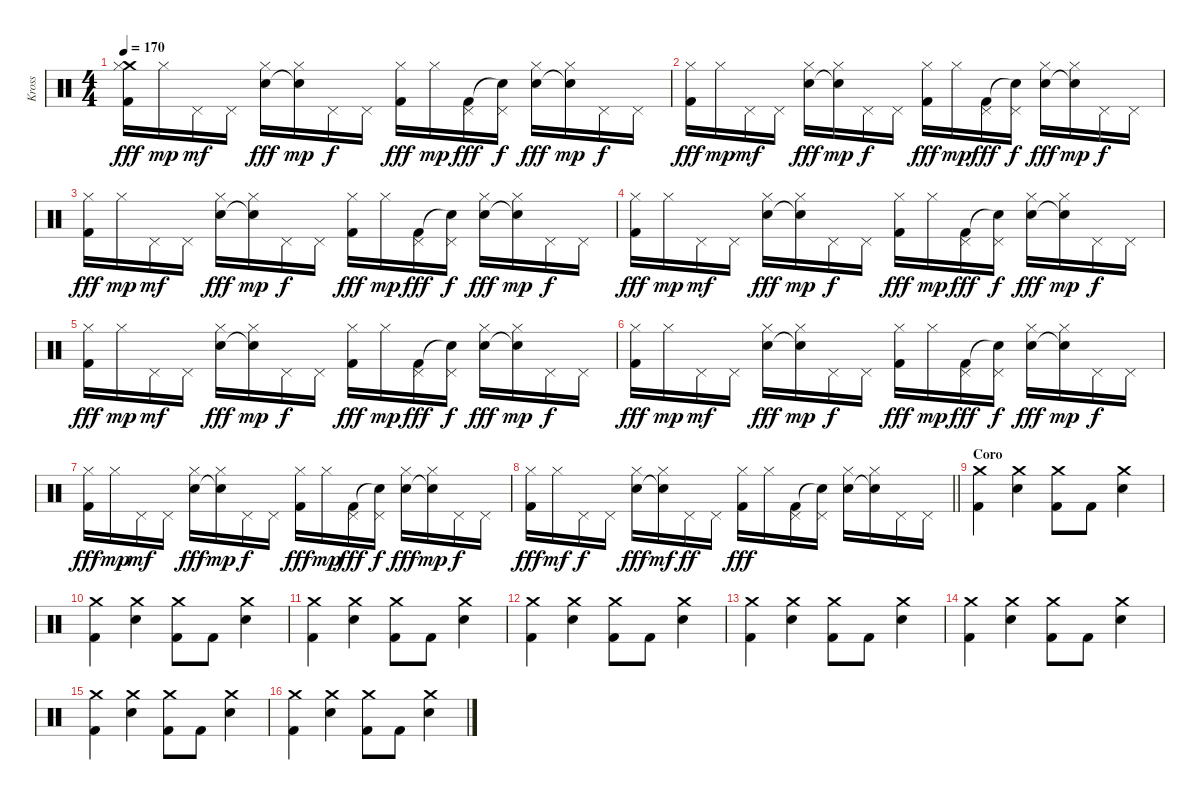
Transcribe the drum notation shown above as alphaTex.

\track ("Kross" "Kross") {instrument percussion}
\staff {score}
\articulation defaults
\ts (4 4)
\tempo 170
\clef neutral
\ks c
("Crash medium (hit)" "Hi-Hat (closed)" "Kick (hit) 2").16{dy fff} "Hi-Hat (closed)".16{dy mp} "Pedal Hi-Hat (hit)".16{dy mf} "Pedal Hi-Hat (hit)".16 ("Hi-Hat (closed)" "Snare (hit) 2").16{dy fff} ("Hi-Hat (closed)" "Snare (hit)"{t}).16{dy mp} "Pedal Hi-Hat (hit)".16{dy f} "Pedal Hi-Hat (hit)".16 ("Hi-Hat (closed)" "Kick (hit) 2").16{dy fff} "Hi-Hat (closed)".16{dy mp} ("Pedal Hi-Hat (hit)" "Kick (hit) 2").16{dy fff} ("Pedal Hi-Hat (hit)" "Snare (hit)"{t}).16{dy f} ("Hi-Hat (closed)" "Snare (hit) 2").16{dy fff} ("Hi-Hat (closed)" "Snare (hit)"{t}).16{dy mp} "Pedal Hi-Hat (hit)".16{dy f} "Pedal Hi-Hat (hit)".16 |
("Hi-Hat (closed)" "Kick (hit) 2").16{dy fff} "Hi-Hat (closed)".16{dy mp} "Pedal Hi-Hat (hit)".16{dy mf} "Pedal Hi-Hat (hit)".16 ("Hi-Hat (closed)" "Snare (hit) 2").16{dy fff} ("Hi-Hat (closed)" "Snare (hit)"{t}).16{dy mp} "Pedal Hi-Hat (hit)".16{dy f} "Pedal Hi-Hat (hit)".16 ("Hi-Hat (closed)" "Kick (hit) 2").16{dy fff} "Hi-Hat (closed)".16{dy mp} ("Pedal Hi-Hat (hit)" "Kick (hit) 2").16{dy fff} ("Pedal Hi-Hat (hit)" "Snare (hit)"{t}).16{dy f} ("Hi-Hat (closed)" "Snare (hit) 2").16{dy fff} ("Hi-Hat (closed)" "Snare (hit)"{t}).16{dy mp} "Pedal Hi-Hat (hit)".16{dy f} "Pedal Hi-Hat (hit)".16 |
("Hi-Hat (closed)" "Kick (hit) 2").16{dy fff} "Hi-Hat (closed)".16{dy mp} "Pedal Hi-Hat (hit)".16{dy mf} "Pedal Hi-Hat (hit)".16 ("Hi-Hat (closed)" "Snare (hit) 2").16{dy fff} ("Hi-Hat (closed)" "Snare (hit)"{t}).16{dy mp} "Pedal Hi-Hat (hit)".16{dy f} "Pedal Hi-Hat (hit)".16 ("Hi-Hat (closed)" "Kick (hit) 2").16{dy fff} "Hi-Hat (closed)".16{dy mp} ("Pedal Hi-Hat (hit)" "Kick (hit) 2").16{dy fff} ("Pedal Hi-Hat (hit)" "Snare (hit)"{t}).16{dy f} ("Hi-Hat (closed)" "Snare (hit) 2").16{dy fff} ("Hi-Hat (closed)" "Snare (hit)"{t}).16{dy mp} "Pedal Hi-Hat (hit)".16{dy f} "Pedal Hi-Hat (hit)".16 |
("Hi-Hat (closed)" "Kick (hit) 2").16{dy fff} "Hi-Hat (closed)".16{dy mp} "Pedal Hi-Hat (hit)".16{dy mf} "Pedal Hi-Hat (hit)".16 ("Hi-Hat (closed)" "Snare (hit) 2").16{dy fff} ("Hi-Hat (closed)" "Snare (hit)"{t}).16{dy mp} "Pedal Hi-Hat (hit)".16{dy f} "Pedal Hi-Hat (hit)".16 ("Hi-Hat (closed)" "Kick (hit) 2").16{dy fff} "Hi-Hat (closed)".16{dy mp} ("Pedal Hi-Hat (hit)" "Kick (hit) 2").16{dy fff} ("Pedal Hi-Hat (hit)" "Snare (hit)"{t}).16{dy f} ("Hi-Hat (closed)" "Snare (hit) 2").16{dy fff} ("Hi-Hat (closed)" "Snare (hit)"{t}).16{dy mp} "Pedal Hi-Hat (hit)".16{dy f} "Pedal Hi-Hat (hit)".16 |
("Hi-Hat (closed)" "Kick (hit) 2").16{dy fff} "Hi-Hat (closed)".16{dy mp} "Pedal Hi-Hat (hit)".16{dy mf} "Pedal Hi-Hat (hit)".16 ("Hi-Hat (closed)" "Snare (hit) 2").16{dy fff} ("Hi-Hat (closed)" "Snare (hit)"{t}).16{dy mp} "Pedal Hi-Hat (hit)".16{dy f} "Pedal Hi-Hat (hit)".16 ("Hi-Hat (closed)" "Kick (hit) 2").16{dy fff} "Hi-Hat (closed)".16{dy mp} ("Pedal Hi-Hat (hit)" "Kick (hit) 2").16{dy fff} ("Pedal Hi-Hat (hit)" "Snare (hit)"{t}).16{dy f} ("Hi-Hat (closed)" "Snare (hit) 2").16{dy fff} ("Hi-Hat (closed)" "Snare (hit)"{t}).16{dy mp} "Pedal Hi-Hat (hit)".16{dy f} "Pedal Hi-Hat (hit)".16 |
("Hi-Hat (closed)" "Kick (hit) 2").16{dy fff} "Hi-Hat (closed)".16{dy mp} "Pedal Hi-Hat (hit)".16{dy mf} "Pedal Hi-Hat (hit)".16 ("Hi-Hat (closed)" "Snare (hit) 2").16{dy fff} ("Hi-Hat (closed)" "Snare (hit)"{t}).16{dy mp} "Pedal Hi-Hat (hit)".16{dy f} "Pedal Hi-Hat (hit)".16 ("Hi-Hat (closed)" "Kick (hit) 2").16{dy fff} "Hi-Hat (closed)".16{dy mp} ("Pedal Hi-Hat (hit)" "Kick (hit) 2").16{dy fff} ("Pedal Hi-Hat (hit)" "Snare (hit)"{t}).16{dy f} ("Hi-Hat (closed)" "Snare (hit) 2").16{dy fff} ("Hi-Hat (closed)" "Snare (hit)"{t}).16{dy mp} "Pedal Hi-Hat (hit)".16{dy f} "Pedal Hi-Hat (hit)".16 |
("Hi-Hat (closed)" "Kick (hit) 2").16{dy fff} "Hi-Hat (closed)".16{dy mp} "Pedal Hi-Hat (hit)".16{dy mf} "Pedal Hi-Hat (hit)".16 ("Hi-Hat (closed)" "Snare (hit) 2").16{dy fff} ("Hi-Hat (closed)" "Snare (hit)"{t}).16{dy mp} "Pedal Hi-Hat (hit)".16{dy f} "Pedal Hi-Hat (hit)".16 ("Hi-Hat (closed)" "Kick (hit) 2").16{dy fff} "Hi-Hat (closed)".16{dy mp} ("Pedal Hi-Hat (hit)" "Kick (hit) 2").16{dy fff} ("Pedal Hi-Hat (hit)" "Snare (hit)"{t}).16{dy f} ("Hi-Hat (closed)" "Snare (hit) 2").16{dy fff} ("Hi-Hat (closed)" "Snare (hit)"{t}).16{dy mp} "Pedal Hi-Hat (hit)".16{dy f} "Pedal Hi-Hat (hit)".16 |
\barLineRight lightlight
("Hi-Hat (closed)" "Kick (hit) 2").16{dy fff} "Hi-Hat (closed)".16{dy mf} "Pedal Hi-Hat (hit)".16{dy f} "Pedal Hi-Hat (hit)".16 ("Hi-Hat (closed)" "Snare (hit) 2").16{dy fff} ("Hi-Hat (closed)" "Snare (hit)"{t}).16{dy mf} "Pedal Hi-Hat (hit)".16{dy ff} "Pedal Hi-Hat (hit)".16 ("Hi-Hat (closed)" "Kick (hit) 2").16{dy fff} "Hi-Hat (closed)".16 ("Pedal Hi-Hat (hit)" "Kick (hit) 2").16 ("Pedal Hi-Hat (hit)" "Snare (hit)"{t}).16 ("Hi-Hat (closed)" "Snare (hit) 2").16 ("Hi-Hat (closed)" "Snare (hit)"{t}).16 "Pedal Hi-Hat (hit)".16 "Pedal Hi-Hat (hit)".16 |
\section ("" "Coro")
("Crash medium (hit)" "Kick (hit) 2").4 ("Crash medium (hit)" "Snare (hit) 2").4 ("Crash medium (hit)" "Kick (hit) 2").8 "Kick (hit) 2".8 ("Crash medium (hit)" "Snare (hit) 2").4 |
("Crash medium (hit)" "Kick (hit) 2").4 ("Crash medium (hit)" "Snare (hit) 2").4 ("Crash medium (hit)" "Kick (hit) 2").8 "Kick (hit) 2".8 ("Crash medium (hit)" "Snare (hit) 2").4 |
("Crash medium (hit)" "Kick (hit) 2").4 ("Crash medium (hit)" "Snare (hit) 2").4 ("Crash medium (hit)" "Kick (hit) 2").8 "Kick (hit) 2".8 ("Crash medium (hit)" "Snare (hit) 2").4 |
("Crash medium (hit)" "Kick (hit) 2").4 ("Crash medium (hit)" "Snare (hit) 2").4 ("Crash medium (hit)" "Kick (hit) 2").8 "Kick (hit) 2".8 ("Crash medium (hit)" "Snare (hit) 2").4 |
("Crash medium (hit)" "Kick (hit) 2").4 ("Crash medium (hit)" "Snare (hit) 2").4 ("Crash medium (hit)" "Kick (hit) 2").8 "Kick (hit) 2".8 ("Crash medium (hit)" "Snare (hit) 2").4 |
("Crash medium (hit)" "Kick (hit) 2").4 ("Crash medium (hit)" "Snare (hit) 2").4 ("Crash medium (hit)" "Kick (hit) 2").8 "Kick (hit) 2".8 ("Crash medium (hit)" "Snare (hit) 2").4 |
("Crash medium (hit)" "Kick (hit) 2").4 ("Crash medium (hit)" "Snare (hit) 2").4 ("Crash medium (hit)" "Kick (hit) 2").8 "Kick (hit) 2".8 ("Crash medium (hit)" "Snare (hit) 2").4 |
("Crash medium (hit)" "Kick (hit) 2").4 ("Crash medium (hit)" "Snare (hit) 2").4 ("Crash medium (hit)" "Kick (hit) 2").8 "Kick (hit) 2".8 ("Crash medium (hit)" "Snare (hit) 2").4
